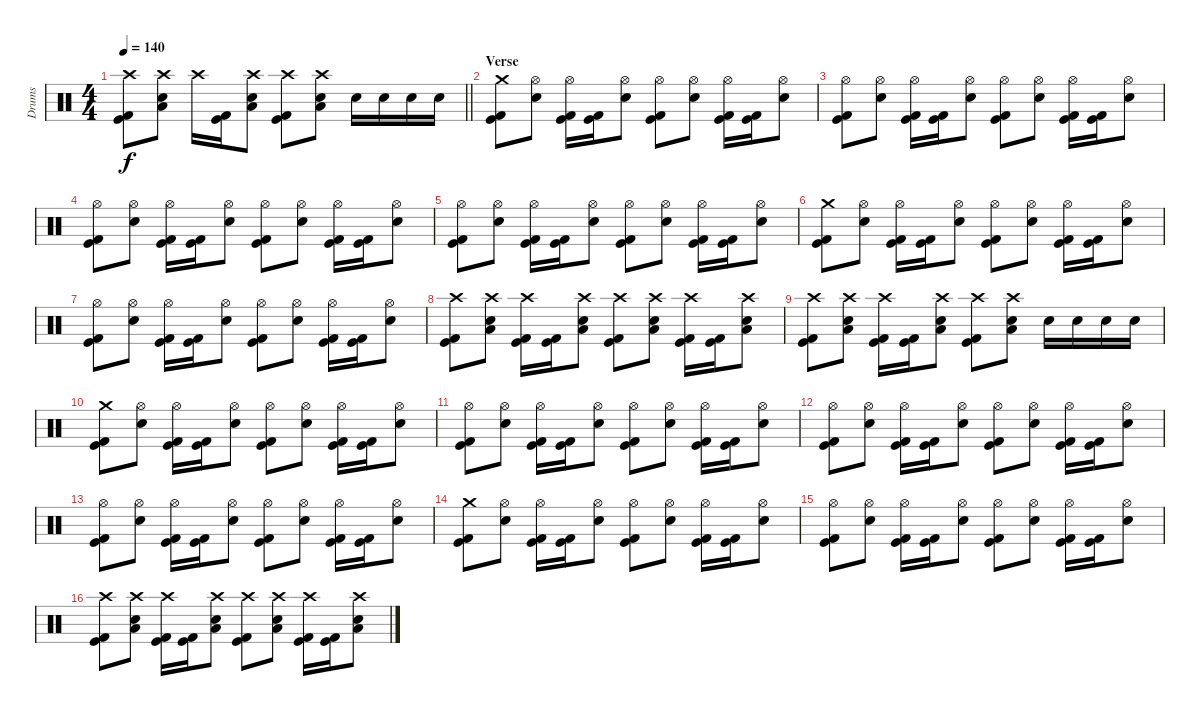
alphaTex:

\track ("Drums" "Drums") {instrument percussion}
\staff {score}
\articulation defaults
\ts (4 4)
\tempo 140
\clef neutral
\barLineRight lightlight
\ks c
("Crash high (hit)" "Kick (hit)" "Kick (hit) 2").8{dy f} ("Crash high (hit)" "Electric Snare (hit)" "Low Floor Tom (hit)").8 "Crash high (hit)".16 ("Kick (hit)" "Kick (hit) 2").16 ("Crash high (hit)" "Electric Snare (hit)" "Low Floor Tom (hit)").8 ("Crash high (hit)" "Kick (hit)" "Kick (hit) 2").8 ("Crash high (hit)" "Electric Snare (hit)" "Low Floor Tom (hit)").8 "Electric Snare (hit)".16 "Electric Snare (hit)".16 "Electric Snare (hit)".16 "Electric Snare (hit)".16 |
\section ("" "Verse")
("Crash medium (hit)" "Kick (hit)" "Kick (hit) 2").8 ("Hi-Hat (open)" "Electric Snare (hit)").8 ("Hi-Hat (open)" "Kick (hit)" "Kick (hit) 2").16 ("Kick (hit)" "Kick (hit) 2").16 ("Hi-Hat (open)" "Electric Snare (hit)").8 ("Hi-Hat (open)" "Kick (hit)" "Kick (hit) 2").8 ("Hi-Hat (open)" "Electric Snare (hit)").8 ("Hi-Hat (open)" "Kick (hit)" "Kick (hit) 2").16 ("Kick (hit)" "Kick (hit) 2").16 ("Hi-Hat (open)" "Electric Snare (hit)").8 |
("Hi-Hat (open)" "Kick (hit)" "Kick (hit) 2").8 ("Hi-Hat (open)" "Electric Snare (hit)").8 ("Hi-Hat (open)" "Kick (hit)" "Kick (hit) 2").16 ("Kick (hit)" "Kick (hit) 2").16 ("Hi-Hat (open)" "Electric Snare (hit)").8 ("Hi-Hat (open)" "Kick (hit)" "Kick (hit) 2").8 ("Hi-Hat (open)" "Electric Snare (hit)").8 ("Hi-Hat (open)" "Kick (hit)" "Kick (hit) 2").16 ("Kick (hit)" "Kick (hit) 2").16 ("Hi-Hat (open)" "Electric Snare (hit)").8 |
("Hi-Hat (open)" "Kick (hit)" "Kick (hit) 2").8 ("Hi-Hat (open)" "Electric Snare (hit)").8 ("Hi-Hat (open)" "Kick (hit)" "Kick (hit) 2").16 ("Kick (hit)" "Kick (hit) 2").16 ("Hi-Hat (open)" "Electric Snare (hit)").8 ("Hi-Hat (open)" "Kick (hit)" "Kick (hit) 2").8 ("Hi-Hat (open)" "Electric Snare (hit)").8 ("Hi-Hat (open)" "Kick (hit)" "Kick (hit) 2").16 ("Kick (hit)" "Kick (hit) 2").16 ("Hi-Hat (open)" "Electric Snare (hit)").8 |
("Hi-Hat (open)" "Kick (hit)" "Kick (hit) 2").8 ("Hi-Hat (open)" "Electric Snare (hit)").8 ("Hi-Hat (open)" "Kick (hit)" "Kick (hit) 2").16 ("Kick (hit)" "Kick (hit) 2").16 ("Hi-Hat (open)" "Electric Snare (hit)").8 ("Hi-Hat (open)" "Kick (hit)" "Kick (hit) 2").8 ("Hi-Hat (open)" "Electric Snare (hit)").8 ("Hi-Hat (open)" "Kick (hit)" "Kick (hit) 2").16 ("Kick (hit)" "Kick (hit) 2").16 ("Hi-Hat (open)" "Electric Snare (hit)").8 |
("Crash medium (hit)" "Kick (hit)" "Kick (hit) 2").8 ("Hi-Hat (open)" "Electric Snare (hit)").8 ("Hi-Hat (open)" "Kick (hit)" "Kick (hit) 2").16 ("Kick (hit)" "Kick (hit) 2").16 ("Hi-Hat (open)" "Electric Snare (hit)").8 ("Hi-Hat (open)" "Kick (hit)" "Kick (hit) 2").8 ("Hi-Hat (open)" "Electric Snare (hit)").8 ("Hi-Hat (open)" "Kick (hit)" "Kick (hit) 2").16 ("Kick (hit)" "Kick (hit) 2").16 ("Hi-Hat (open)" "Electric Snare (hit)").8 |
("Hi-Hat (open)" "Kick (hit)" "Kick (hit) 2").8 ("Hi-Hat (open)" "Electric Snare (hit)").8 ("Hi-Hat (open)" "Kick (hit)" "Kick (hit) 2").16 ("Kick (hit)" "Kick (hit) 2").16 ("Hi-Hat (open)" "Electric Snare (hit)").8 ("Hi-Hat (open)" "Kick (hit)" "Kick (hit) 2").8 ("Hi-Hat (open)" "Electric Snare (hit)").8 ("Hi-Hat (open)" "Kick (hit)" "Kick (hit) 2").16 ("Kick (hit)" "Kick (hit) 2").16 ("Hi-Hat (open)" "Electric Snare (hit)").8 |
("Crash high (hit)" "Kick (hit)" "Kick (hit) 2").8 ("Crash high (hit)" "Electric Snare (hit)" "Low Floor Tom (hit)").8 ("Crash high (hit)" "Kick (hit)" "Kick (hit) 2").16 ("Kick (hit)" "Kick (hit) 2").16 ("Crash high (hit)" "Electric Snare (hit)" "Low Floor Tom (hit)").8 ("Crash high (hit)" "Kick (hit)" "Kick (hit) 2").8 ("Crash high (hit)" "Electric Snare (hit)" "Low Floor Tom (hit)").8 ("Crash high (hit)" "Kick (hit)" "Kick (hit) 2").16 ("Kick (hit)" "Kick (hit) 2").16 ("Crash high (hit)" "Electric Snare (hit)" "Low Floor Tom (hit)").8 |
("Crash high (hit)" "Kick (hit)" "Kick (hit) 2").8 ("Crash high (hit)" "Electric Snare (hit)" "Low Floor Tom (hit)").8 ("Crash high (hit)" "Kick (hit)" "Kick (hit) 2").16 ("Kick (hit)" "Kick (hit) 2").16 ("Crash high (hit)" "Electric Snare (hit)" "Low Floor Tom (hit)").8 ("Crash high (hit)" "Kick (hit)" "Kick (hit) 2").8 ("Crash high (hit)" "Electric Snare (hit)" "Low Floor Tom (hit)").8 "Electric Snare (hit)".16 "Electric Snare (hit)".16 "Electric Snare (hit)".16 "Electric Snare (hit)".16 |
("Crash medium (hit)" "Kick (hit)" "Kick (hit) 2").8 ("Hi-Hat (open)" "Electric Snare (hit)").8 ("Hi-Hat (open)" "Kick (hit)" "Kick (hit) 2").16 ("Kick (hit)" "Kick (hit) 2").16 ("Hi-Hat (open)" "Electric Snare (hit)").8 ("Hi-Hat (open)" "Kick (hit)" "Kick (hit) 2").8 ("Hi-Hat (open)" "Electric Snare (hit)").8 ("Hi-Hat (open)" "Kick (hit)" "Kick (hit) 2").16 ("Kick (hit)" "Kick (hit) 2").16 ("Hi-Hat (open)" "Electric Snare (hit)").8 |
("Hi-Hat (open)" "Kick (hit)" "Kick (hit) 2").8 ("Hi-Hat (open)" "Electric Snare (hit)").8 ("Hi-Hat (open)" "Kick (hit)" "Kick (hit) 2").16 ("Kick (hit)" "Kick (hit) 2").16 ("Hi-Hat (open)" "Electric Snare (hit)").8 ("Hi-Hat (open)" "Kick (hit)" "Kick (hit) 2").8 ("Hi-Hat (open)" "Electric Snare (hit)").8 ("Hi-Hat (open)" "Kick (hit)" "Kick (hit) 2").16 ("Kick (hit)" "Kick (hit) 2").16 ("Hi-Hat (open)" "Electric Snare (hit)").8 |
("Hi-Hat (open)" "Kick (hit)" "Kick (hit) 2").8 ("Hi-Hat (open)" "Electric Snare (hit)").8 ("Hi-Hat (open)" "Kick (hit)" "Kick (hit) 2").16 ("Kick (hit)" "Kick (hit) 2").16 ("Hi-Hat (open)" "Electric Snare (hit)").8 ("Hi-Hat (open)" "Kick (hit)" "Kick (hit) 2").8 ("Hi-Hat (open)" "Electric Snare (hit)").8 ("Hi-Hat (open)" "Kick (hit)" "Kick (hit) 2").16 ("Kick (hit)" "Kick (hit) 2").16 ("Hi-Hat (open)" "Electric Snare (hit)").8 |
("Hi-Hat (open)" "Kick (hit)" "Kick (hit) 2").8 ("Hi-Hat (open)" "Electric Snare (hit)").8 ("Hi-Hat (open)" "Kick (hit)" "Kick (hit) 2").16 ("Kick (hit)" "Kick (hit) 2").16 ("Hi-Hat (open)" "Electric Snare (hit)").8 ("Hi-Hat (open)" "Kick (hit)" "Kick (hit) 2").8 ("Hi-Hat (open)" "Electric Snare (hit)").8 ("Hi-Hat (open)" "Kick (hit)" "Kick (hit) 2").16 ("Kick (hit)" "Kick (hit) 2").16 ("Hi-Hat (open)" "Electric Snare (hit)").8 |
("Crash medium (hit)" "Kick (hit)" "Kick (hit) 2").8 ("Hi-Hat (open)" "Electric Snare (hit)").8 ("Hi-Hat (open)" "Kick (hit)" "Kick (hit) 2").16 ("Kick (hit)" "Kick (hit) 2").16 ("Hi-Hat (open)" "Electric Snare (hit)").8 ("Hi-Hat (open)" "Kick (hit)" "Kick (hit) 2").8 ("Hi-Hat (open)" "Electric Snare (hit)").8 ("Hi-Hat (open)" "Kick (hit)" "Kick (hit) 2").16 ("Kick (hit)" "Kick (hit) 2").16 ("Hi-Hat (open)" "Electric Snare (hit)").8 |
("Hi-Hat (open)" "Kick (hit)" "Kick (hit) 2").8 ("Hi-Hat (open)" "Electric Snare (hit)").8 ("Hi-Hat (open)" "Kick (hit)" "Kick (hit) 2").16 ("Kick (hit)" "Kick (hit) 2").16 ("Hi-Hat (open)" "Electric Snare (hit)").8 ("Hi-Hat (open)" "Kick (hit)" "Kick (hit) 2").8 ("Hi-Hat (open)" "Electric Snare (hit)").8 ("Hi-Hat (open)" "Kick (hit)" "Kick (hit) 2").16 ("Kick (hit)" "Kick (hit) 2").16 ("Hi-Hat (open)" "Electric Snare (hit)").8 |
("Crash high (hit)" "Kick (hit)" "Kick (hit) 2").8 ("Crash high (hit)" "Electric Snare (hit)" "Low Floor Tom (hit)").8 ("Crash high (hit)" "Kick (hit)" "Kick (hit) 2").16 ("Kick (hit)" "Kick (hit) 2").16 ("Crash high (hit)" "Electric Snare (hit)" "Low Floor Tom (hit)").8 ("Crash high (hit)" "Kick (hit)" "Kick (hit) 2").8 ("Crash high (hit)" "Electric Snare (hit)" "Low Floor Tom (hit)").8 ("Crash high (hit)" "Kick (hit)" "Kick (hit) 2").16 ("Kick (hit)" "Kick (hit) 2").16 ("Crash high (hit)" "Electric Snare (hit)" "Low Floor Tom (hit)").8
